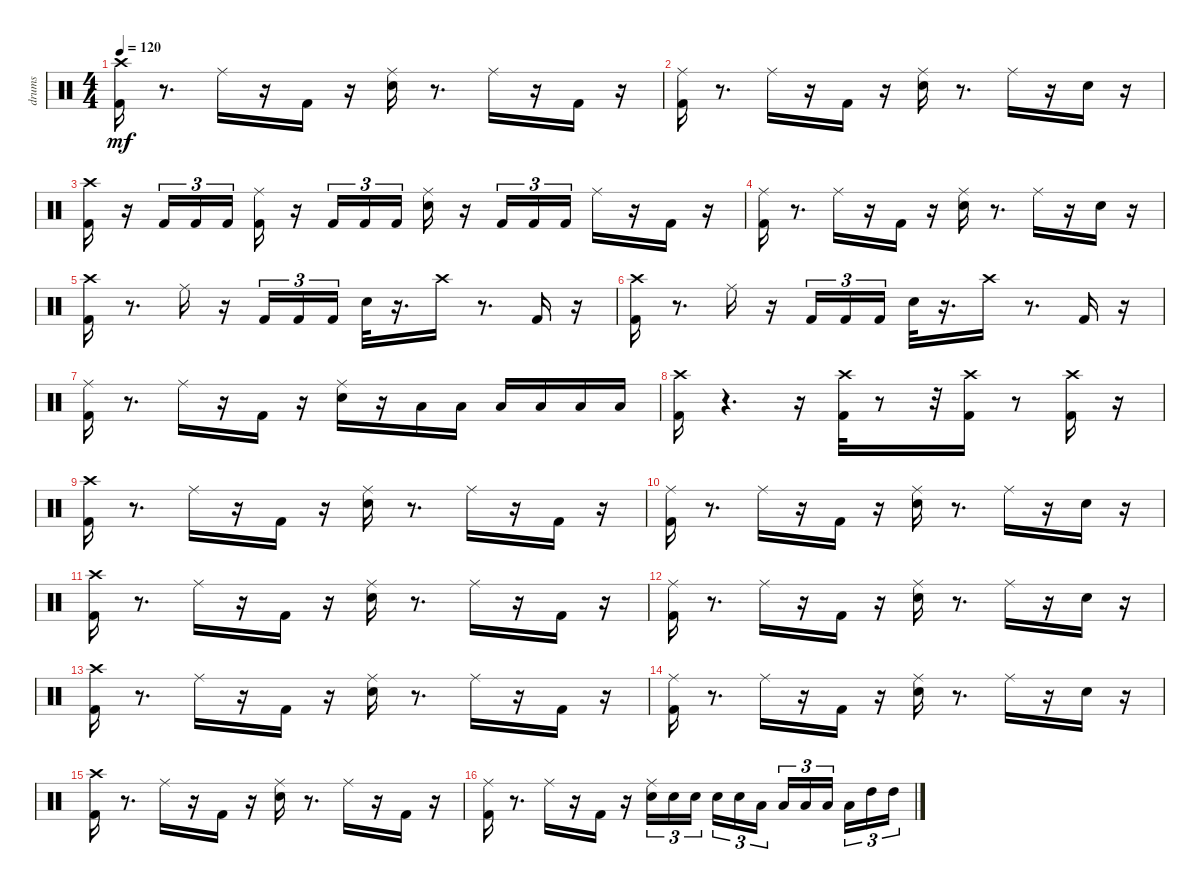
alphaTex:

\track ("drums               " "drums     ") {instrument percussion}
\staff {score}
\articulation defaults
\ts (4 4)
\tempo 120
\clef neutral
\ks c
("Kick (hit) 2" "Crash high (hit)").16{dy mf} r.8{d} "Ride (middle)".16 r.16 "Kick (hit) 2".16 r.16 ("Ride (middle)" "Snare (hit) 2").16 r.8{d} "Ride (middle)".16 r.16 "Kick (hit) 2".16 r.16 |
("Kick (hit) 2" "Ride (middle)").16 r.8{d} "Ride (middle)".16 r.16 "Kick (hit) 2".16 r.16 ("Ride (middle)" "Snare (hit) 2").16 r.8{d} "Ride (middle)".16 r.16 "Snare (hit) 2".16 r.16 |
("Crash high (hit)" "Kick (hit) 2").16 r.16 "Kick (hit) 2".16{tu (3 2)} "Kick (hit) 2".16{tu (3 2)} "Kick (hit) 2".16{tu (3 2)} ("Ride (middle)" "Kick (hit) 2").16 r.16 "Kick (hit) 2".16{tu (3 2)} "Kick (hit) 2".16{tu (3 2)} "Kick (hit) 2".16{tu (3 2)} ("Ride (middle)" "Snare (hit) 2").16 r.16 "Kick (hit) 2".16{tu (3 2)} "Kick (hit) 2".16{tu (3 2)} "Kick (hit) 2".16{tu (3 2)} "Ride (middle)".16 r.16 "Kick (hit) 2".16 r.16 |
("Kick (hit) 2" "Ride (middle)").16 r.8{d} "Ride (middle)".16 r.16 "Kick (hit) 2".16 r.16 ("Ride (middle)" "Snare (hit) 2").16 r.8{d} "Ride (middle)".16 r.16 "Snare (hit) 2".16 r.16 |
("Kick (hit) 2" "Crash high (hit)").16 r.8{d} "Ride (middle)".16 r.16 "Kick (hit) 2".16{tu (3 2)} "Kick (hit) 2".16{tu (3 2)} "Kick (hit) 2".16{tu (3 2)} "Snare (hit) 2".32 r.16{d} "Crash high (hit)".16 r.8{d} "Kick (hit) 2".16 r.16 |
("Kick (hit) 2" "Crash high (hit)").16 r.8{d} "Ride (middle)".16 r.16 "Kick (hit) 2".16{tu (3 2)} "Kick (hit) 2".16{tu (3 2)} "Kick (hit) 2".16{tu (3 2)} "Snare (hit) 2".32 r.16{d} "Crash high (hit)".16 r.8{d} "Kick (hit) 2".16 r.16 |
("Kick (hit) 2" "Ride (middle)").16 r.8{d} "Ride (middle)".16 r.16 "Kick (hit) 2".16 r.16 ("Snare (hit) 2" "Ride (middle)").16 r.16 "Low Tom (hit)".16 "Low Tom (hit)".16 "Low Tom (hit)".16 "Low Floor Tom (hit)".16 "Low Floor Tom (hit)".16 "Low Floor Tom (hit)".16 |
("Kick (hit) 2" "Crash high (hit)").16 r.4{d} r.16 ("Crash high (hit)" "Kick (hit) 2").32 r.8 r.32 ("Kick (hit) 2" "Crash high (hit)").16 r.8 ("Kick (hit) 2" "Crash high (hit)").16 r.16 |
("Kick (hit) 2" "Crash high (hit)").16 r.8{d} "Ride (middle)".16 r.16 "Kick (hit) 2".16 r.16 ("Ride (middle)" "Snare (hit) 2").16 r.8{d} "Ride (middle)".16 r.16 "Kick (hit) 2".16 r.16 |
("Kick (hit) 2" "Ride (middle)").16 r.8{d} "Ride (middle)".16 r.16 "Kick (hit) 2".16 r.16 ("Ride (middle)" "Snare (hit) 2").16 r.8{d} "Ride (middle)".16 r.16 "Snare (hit) 2".16 r.16 |
("Kick (hit) 2" "Crash high (hit)").16 r.8{d} "Ride (middle)".16 r.16 "Kick (hit) 2".16 r.16 ("Ride (middle)" "Snare (hit) 2").16 r.8{d} "Ride (middle)".16 r.16 "Kick (hit) 2".16 r.16 |
("Kick (hit) 2" "Ride (middle)").16 r.8{d} "Ride (middle)".16 r.16 "Kick (hit) 2".16 r.16 ("Ride (middle)" "Snare (hit) 2").16 r.8{d} "Ride (middle)".16 r.16 "Snare (hit) 2".16 r.16 |
("Kick (hit) 2" "Crash high (hit)").16 r.8{d} "Ride (middle)".16 r.16 "Kick (hit) 2".16 r.16 ("Ride (middle)" "Snare (hit) 2").16 r.8{d} "Ride (middle)".16 r.16 "Kick (hit) 2".16 r.16 |
("Kick (hit) 2" "Ride (middle)").16 r.8{d} "Ride (middle)".16 r.16 "Kick (hit) 2".16 r.16 ("Ride (middle)" "Snare (hit) 2").16 r.8{d} "Ride (middle)".16 r.16 "Snare (hit) 2".16 r.16 |
("Kick (hit) 2" "Crash high (hit)").16 r.8{d} "Ride (middle)".16 r.16 "Kick (hit) 2".16 r.16 ("Ride (middle)" "Snare (hit) 2").16 r.8{d} "Ride (middle)".16 r.16 "Kick (hit) 2".16 r.16 |
("Kick (hit) 2" "Ride (middle)").16 r.8{d} "Ride (middle)".16 r.16 "Kick (hit) 2".16 r.16 ("Ride (middle)" "Snare (hit) 2").16{tu (3 2)} "Snare (hit) 2".16{tu (3 2)} "Snare (hit) 2".16{tu (3 2)} "Snare (hit) 2".16{tu (3 2)} "Snare (hit) 2".16{tu (3 2)} "Low Tom (hit)".16{tu (3 2)} "Low Tom (hit)".16{tu (3 2)} "Low Tom (hit)".16{tu (3 2)} "Low Tom (hit)".16{tu (3 2)} "Low Tom (hit)".16{tu (3 2)} "High Tom (hit)".16{tu (3 2)} "High Tom (hit)".16{tu (3 2)}
